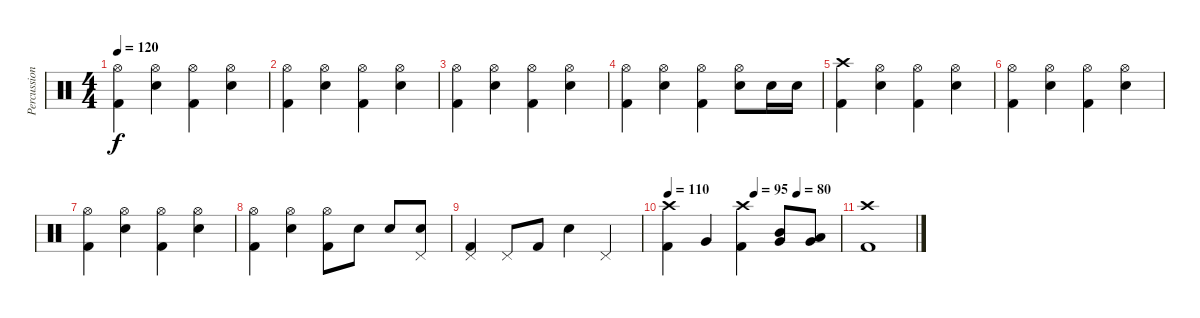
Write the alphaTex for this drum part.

\track ("Percussion" "Percussion") {instrument percussion}
\staff {score}
\articulation defaults
\ts (4 4)
\tempo 120
\clef neutral
\ks c
("Kick (hit) 2" "Hi-Hat (open)").4{dy f} ("Electric Snare (hit)" "Hi-Hat (open)").4 ("Kick (hit) 2" "Hi-Hat (open)").4 ("Electric Snare (hit)" "Hi-Hat (open)").4 |
("Kick (hit) 2" "Hi-Hat (open)").4 ("Electric Snare (hit)" "Hi-Hat (open)").4 ("Kick (hit) 2" "Hi-Hat (open)").4 ("Electric Snare (hit)" "Hi-Hat (open)").4 |
("Kick (hit) 2" "Hi-Hat (open)").4 ("Electric Snare (hit)" "Hi-Hat (open)").4 ("Kick (hit) 2" "Hi-Hat (open)").4 ("Electric Snare (hit)" "Hi-Hat (open)").4 |
("Kick (hit) 2" "Hi-Hat (open)").4 ("Electric Snare (hit)" "Hi-Hat (open)").4 ("Kick (hit) 2" "Hi-Hat (open)").4 ("Electric Snare (hit)" "Hi-Hat (open)").8 "Electric Snare (hit)".16 "Electric Snare (hit)".16 |
("Kick (hit) 2" "Crash high (hit)").4 ("Electric Snare (hit)" "Hi-Hat (open)").4 ("Kick (hit) 2" "Hi-Hat (open)").4 ("Electric Snare (hit)" "Hi-Hat (open)").4 |
("Kick (hit) 2" "Hi-Hat (open)").4 ("Electric Snare (hit)" "Hi-Hat (open)").4 ("Kick (hit) 2" "Hi-Hat (open)").4 ("Electric Snare (hit)" "Hi-Hat (open)").4 |
("Kick (hit) 2" "Hi-Hat (open)").4 ("Electric Snare (hit)" "Hi-Hat (open)").4 ("Kick (hit) 2" "Hi-Hat (open)").4 ("Electric Snare (hit)" "Hi-Hat (open)").4 |
("Kick (hit) 2" "Hi-Hat (open)").4 ("Electric Snare (hit)" "Hi-Hat (open)").4 ("Kick (hit) 2" "Hi-Hat (open)").8 "Electric Snare (hit)".8 "Electric Snare (hit)".8 ("Pedal Hi-Hat (hit)" "Electric Snare (hit)").8 |
("Kick (hit) 2" "Pedal Hi-Hat (hit)").4 "Pedal Hi-Hat (hit)".8 "Kick (hit) 2".8 "Electric Snare (hit)".4 "Pedal Hi-Hat (hit)".4 |
\tempo 110
\tempo (95 0.5)
\tempo (80 0.75)
("Kick (hit) 2" "Crash high (hit)").4 "Very Low Tom (hit)".4 ("Kick (hit) 2" "Crash high (hit)").4 ("Mid Tom (hit)" "Very Low Tom (hit)").8 ("Low Tom (hit)" "Very Low Tom (hit)").8 |
("Kick (hit) 2" "Crash high (hit)").1
